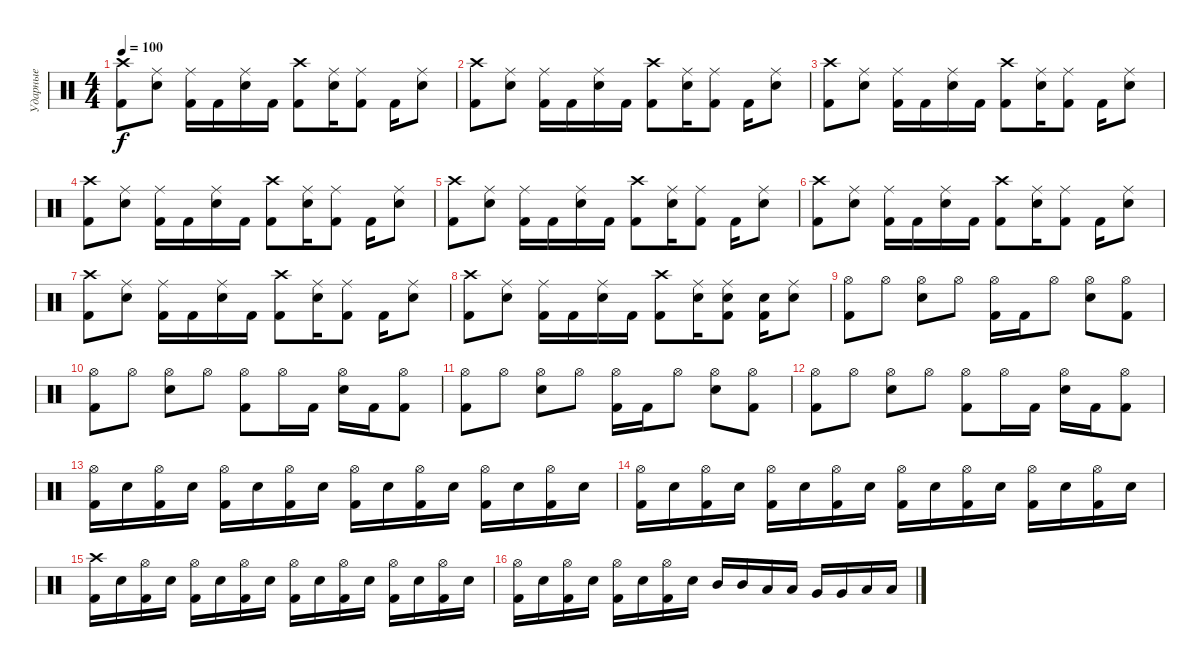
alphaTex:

\track ("Ударные" "Ударные") {instrument percussion}
\staff {score}
\articulation defaults
\ts (4 4)
\tempo 100
\clef neutral
\ks c
("Crash high (hit)" "Kick (hit) 2").8{dy f} ("Ride (middle)" "Snare (hit) 2").8 ("Ride (middle)" "Kick (hit) 2").16 "Kick (hit) 2".16 ("Ride (middle)" "Snare (hit) 2").16 "Kick (hit) 2".16 ("Crash high (hit)" "Kick (hit) 2").8 ("Ride (middle)" "Snare (hit) 2").16 ("Ride (middle)" "Kick (hit) 2").8 "Kick (hit) 2".16 ("Ride (middle)" "Snare (hit) 2").8 |
("Crash high (hit)" "Kick (hit) 2").8 ("Ride (middle)" "Snare (hit) 2").8 ("Ride (middle)" "Kick (hit) 2").16 "Kick (hit) 2".16 ("Ride (middle)" "Snare (hit) 2").16 "Kick (hit) 2".16 ("Crash high (hit)" "Kick (hit) 2").8 ("Ride (middle)" "Snare (hit) 2").16 ("Ride (middle)" "Kick (hit) 2").8 "Kick (hit) 2".16 ("Ride (middle)" "Snare (hit) 2").8 |
("Crash high (hit)" "Kick (hit) 2").8 ("Ride (middle)" "Snare (hit) 2").8 ("Ride (middle)" "Kick (hit) 2").16 "Kick (hit) 2".16 ("Ride (middle)" "Snare (hit) 2").16 "Kick (hit) 2".16 ("Crash high (hit)" "Kick (hit) 2").8 ("Ride (middle)" "Snare (hit) 2").16 ("Ride (middle)" "Kick (hit) 2").8 "Kick (hit) 2".16 ("Ride (middle)" "Snare (hit) 2").8 |
("Crash high (hit)" "Kick (hit) 2").8 ("Ride (middle)" "Snare (hit) 2").8 ("Ride (middle)" "Kick (hit) 2").16 "Kick (hit) 2".16 ("Ride (middle)" "Snare (hit) 2").16 "Kick (hit) 2".16 ("Crash high (hit)" "Kick (hit) 2").8 ("Ride (middle)" "Snare (hit) 2").16 ("Ride (middle)" "Kick (hit) 2").8 "Kick (hit) 2".16 ("Ride (middle)" "Snare (hit) 2").8 |
("Crash high (hit)" "Kick (hit) 2").8 ("Ride (middle)" "Snare (hit) 2").8 ("Ride (middle)" "Kick (hit) 2").16 "Kick (hit) 2".16 ("Ride (middle)" "Snare (hit) 2").16 "Kick (hit) 2".16 ("Crash high (hit)" "Kick (hit) 2").8 ("Ride (middle)" "Snare (hit) 2").16 ("Ride (middle)" "Kick (hit) 2").8 "Kick (hit) 2".16 ("Ride (middle)" "Snare (hit) 2").8 |
("Crash high (hit)" "Kick (hit) 2").8 ("Ride (middle)" "Snare (hit) 2").8 ("Ride (middle)" "Kick (hit) 2").16 "Kick (hit) 2".16 ("Ride (middle)" "Snare (hit) 2").16 "Kick (hit) 2".16 ("Crash high (hit)" "Kick (hit) 2").8 ("Ride (middle)" "Snare (hit) 2").16 ("Ride (middle)" "Kick (hit) 2").8 "Kick (hit) 2".16 ("Ride (middle)" "Snare (hit) 2").8 |
("Crash high (hit)" "Kick (hit) 2").8 ("Ride (middle)" "Snare (hit) 2").8 ("Ride (middle)" "Kick (hit) 2").16 "Kick (hit) 2".16 ("Ride (middle)" "Snare (hit) 2").16 "Kick (hit) 2".16 ("Crash high (hit)" "Kick (hit) 2").8 ("Ride (middle)" "Snare (hit) 2").16 ("Ride (middle)" "Kick (hit) 2").8 "Kick (hit) 2".16 ("Ride (middle)" "Snare (hit) 2").8 |
("Crash high (hit)" "Kick (hit) 2").8 ("Ride (middle)" "Snare (hit) 2").8 ("Ride (middle)" "Kick (hit) 2").16 "Kick (hit) 2".16 ("Ride (middle)" "Snare (hit) 2").16 "Kick (hit) 2".16 ("Crash high (hit)" "Kick (hit) 2").8 ("Ride (middle)" "Snare (hit) 2").16 ("Ride (middle)" "Snare (hit) 2" "Kick (hit) 2").8 ("Snare (hit) 2" "Kick (hit) 2").16 ("Ride (middle)" "Snare (hit) 2").8 |
("Hi-Hat (open)" "Kick (hit) 2").8 "Hi-Hat (open)".8 ("Hi-Hat (open)" "Snare (hit) 2").8 "Hi-Hat (open)".8 ("Hi-Hat (open)" "Kick (hit) 2").16 "Kick (hit) 2".16 "Hi-Hat (open)".8 ("Hi-Hat (open)" "Snare (hit) 2").8 ("Hi-Hat (open)" "Kick (hit) 2").8 |
("Hi-Hat (open)" "Kick (hit) 2").8 "Hi-Hat (open)".8 ("Hi-Hat (open)" "Snare (hit) 2").8 "Hi-Hat (open)".8 ("Hi-Hat (open)" "Kick (hit) 2").8 "Hi-Hat (open)".16 "Kick (hit) 2".16 ("Hi-Hat (open)" "Snare (hit) 2").16 "Kick (hit) 2".16 ("Hi-Hat (open)" "Kick (hit) 2").8 |
("Hi-Hat (open)" "Kick (hit) 2").8 "Hi-Hat (open)".8 ("Hi-Hat (open)" "Snare (hit) 2").8 "Hi-Hat (open)".8 ("Hi-Hat (open)" "Kick (hit) 2").16 "Kick (hit) 2".16 "Hi-Hat (open)".8 ("Hi-Hat (open)" "Snare (hit) 2").8 ("Hi-Hat (open)" "Kick (hit) 2").8 |
("Hi-Hat (open)" "Kick (hit) 2").8 "Hi-Hat (open)".8 ("Hi-Hat (open)" "Snare (hit) 2").8 "Hi-Hat (open)".8 ("Hi-Hat (open)" "Kick (hit) 2").8 "Hi-Hat (open)".16 "Kick (hit) 2".16 ("Hi-Hat (open)" "Snare (hit) 2").16 "Kick (hit) 2".16 ("Hi-Hat (open)" "Kick (hit) 2").8 |
("Hi-Hat (open)" "Kick (hit) 2").16 "Snare (hit) 2".16 ("Hi-Hat (open)" "Kick (hit) 2").16 "Snare (hit) 2".16 ("Hi-Hat (open)" "Kick (hit) 2").16 "Snare (hit) 2".16 ("Hi-Hat (open)" "Kick (hit) 2").16 "Snare (hit) 2".16 ("Hi-Hat (open)" "Kick (hit) 2").16 "Snare (hit) 2".16 ("Hi-Hat (open)" "Kick (hit) 2").16 "Snare (hit) 2".16 ("Hi-Hat (open)" "Kick (hit) 2").16 "Snare (hit) 2".16 ("Hi-Hat (open)" "Kick (hit) 2").16 "Snare (hit) 2".16 |
("Hi-Hat (open)" "Kick (hit) 2").16 "Snare (hit) 2".16 ("Hi-Hat (open)" "Kick (hit) 2").16 "Snare (hit) 2".16 ("Hi-Hat (open)" "Kick (hit) 2").16 "Snare (hit) 2".16 ("Hi-Hat (open)" "Kick (hit) 2").16 "Snare (hit) 2".16 ("Hi-Hat (open)" "Kick (hit) 2").16 "Snare (hit) 2".16 ("Hi-Hat (open)" "Kick (hit) 2").16 "Snare (hit) 2".16 ("Hi-Hat (open)" "Kick (hit) 2").16 "Snare (hit) 2".16 ("Hi-Hat (open)" "Kick (hit) 2").16 "Snare (hit) 2".16 |
("Crash high (hit)" "Kick (hit) 2").16 "Snare (hit) 2".16 ("Hi-Hat (open)" "Kick (hit) 2").16 "Snare (hit) 2".16 ("Hi-Hat (open)" "Kick (hit) 2").16 "Snare (hit) 2".16 ("Hi-Hat (open)" "Kick (hit) 2").16 "Snare (hit) 2".16 ("Hi-Hat (open)" "Kick (hit) 2").16 "Snare (hit) 2".16 ("Hi-Hat (open)" "Kick (hit) 2").16 "Snare (hit) 2".16 ("Hi-Hat (open)" "Kick (hit) 2").16 "Snare (hit) 2".16 ("Hi-Hat (open)" "Kick (hit) 2").16 "Snare (hit) 2".16 |
("Hi-Hat (open)" "Kick (hit) 2").16 "Snare (hit) 2".16 ("Hi-Hat (open)" "Kick (hit) 2").16 "Snare (hit) 2".16 ("Hi-Hat (open)" "Kick (hit) 2").16 "Snare (hit) 2".16 ("Hi-Hat (open)" "Kick (hit) 2").16 "Snare (hit) 2".16 "Mid Tom (hit)".16 "Mid Tom (hit)".16 "Low Tom (hit)".16 "Low Tom (hit)".16 "Very Low Tom (hit)".16 "Very Low Tom (hit)".16 "Low Floor Tom (hit)".16 "Low Floor Tom (hit)".16
